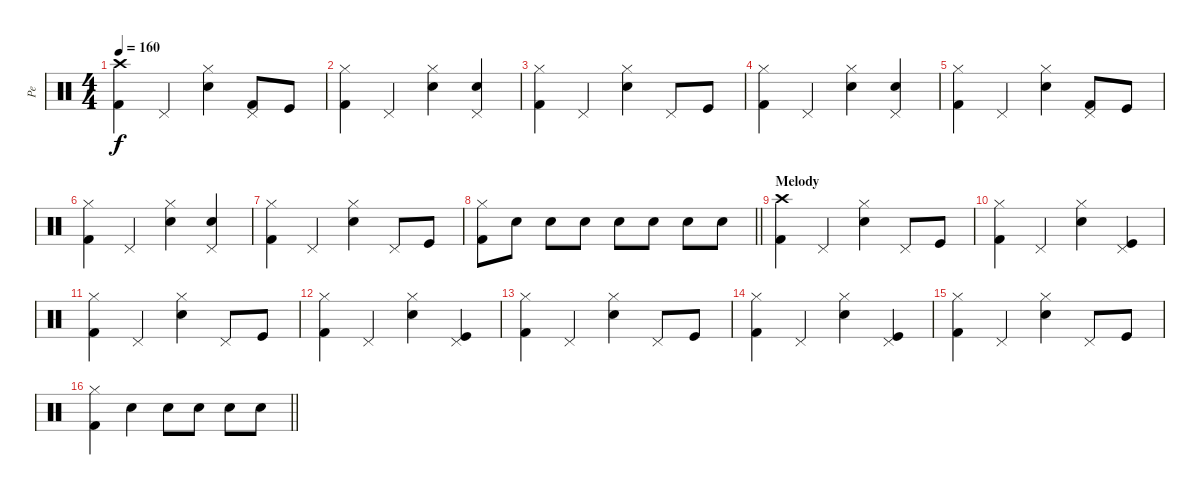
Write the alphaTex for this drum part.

\track ("Pe" "Pe") {instrument percussion}
\staff {score}
\articulation defaults
\ts (4 4)
\tempo 160
\clef neutral
\ks c
("Kick (hit) 2" "Crash high (hit)").4{dy f} "Pedal Hi-Hat (hit)".4 ("Electric Snare (hit)" "Hi-Hat (closed)").4 ("Kick (hit) 2" "Pedal Hi-Hat (hit)").8 "Kick (hit)".8 |
("Kick (hit) 2" "Hi-Hat (closed)").4 "Pedal Hi-Hat (hit)".4 ("Electric Snare (hit)" "Hi-Hat (closed)").4 ("Electric Snare (hit)" "Pedal Hi-Hat (hit)").4 |
("Kick (hit) 2" "Hi-Hat (closed)").4 "Pedal Hi-Hat (hit)".4 ("Electric Snare (hit)" "Hi-Hat (closed)").4 "Pedal Hi-Hat (hit)".8 "Kick (hit)".8 |
("Kick (hit) 2" "Hi-Hat (closed)").4 "Pedal Hi-Hat (hit)".4 ("Electric Snare (hit)" "Hi-Hat (closed)").4 ("Electric Snare (hit)" "Pedal Hi-Hat (hit)").4 |
("Kick (hit) 2" "Hi-Hat (closed)").4 "Pedal Hi-Hat (hit)".4 ("Electric Snare (hit)" "Hi-Hat (closed)").4 ("Kick (hit) 2" "Pedal Hi-Hat (hit)").8 "Kick (hit)".8 |
("Kick (hit) 2" "Hi-Hat (closed)").4 "Pedal Hi-Hat (hit)".4 ("Electric Snare (hit)" "Hi-Hat (closed)").4 ("Electric Snare (hit)" "Pedal Hi-Hat (hit)").4 |
("Kick (hit) 2" "Hi-Hat (closed)").4 "Pedal Hi-Hat (hit)".4 ("Electric Snare (hit)" "Hi-Hat (closed)").4 "Pedal Hi-Hat (hit)".8 "Kick (hit)".8 |
\barLineRight lightlight
("Kick (hit) 2" "Hi-Hat (closed)").8 "Electric Snare (hit)".8 "Electric Snare (hit)".8 "Electric Snare (hit)".8 "Electric Snare (hit)".8 "Electric Snare (hit)".8 "Electric Snare (hit)".8 "Electric Snare (hit)".8 |
\section ("" "Melody")
("Kick (hit) 2" "Crash high (hit)").4 "Pedal Hi-Hat (hit)".4 ("Electric Snare (hit)" "Hi-Hat (closed)").4 "Pedal Hi-Hat (hit)".8 "Kick (hit)".8 |
("Kick (hit) 2" "Hi-Hat (closed)").4 "Pedal Hi-Hat (hit)".4 ("Electric Snare (hit)" "Hi-Hat (closed)").4 ("Kick (hit)" "Pedal Hi-Hat (hit)").4 |
("Kick (hit) 2" "Hi-Hat (closed)").4 "Pedal Hi-Hat (hit)".4 ("Electric Snare (hit)" "Hi-Hat (closed)").4 "Pedal Hi-Hat (hit)".8 "Kick (hit)".8 |
("Kick (hit) 2" "Hi-Hat (closed)").4 "Pedal Hi-Hat (hit)".4 ("Electric Snare (hit)" "Hi-Hat (closed)").4 ("Kick (hit)" "Pedal Hi-Hat (hit)").4 |
("Kick (hit) 2" "Hi-Hat (closed)").4 "Pedal Hi-Hat (hit)".4 ("Electric Snare (hit)" "Hi-Hat (closed)").4 "Pedal Hi-Hat (hit)".8 "Kick (hit)".8 |
("Kick (hit) 2" "Hi-Hat (closed)").4 "Pedal Hi-Hat (hit)".4 ("Electric Snare (hit)" "Hi-Hat (closed)").4 ("Kick (hit)" "Pedal Hi-Hat (hit)").4 |
("Kick (hit) 2" "Hi-Hat (closed)").4 "Pedal Hi-Hat (hit)".4 ("Electric Snare (hit)" "Hi-Hat (closed)").4 "Pedal Hi-Hat (hit)".8 "Kick (hit)".8 |
\barLineRight lightlight
("Kick (hit) 2" "Hi-Hat (closed)").4 "Electric Snare (hit)".4 "Electric Snare (hit)".8 "Electric Snare (hit)".8 "Electric Snare (hit)".8 "Electric Snare (hit)".8
